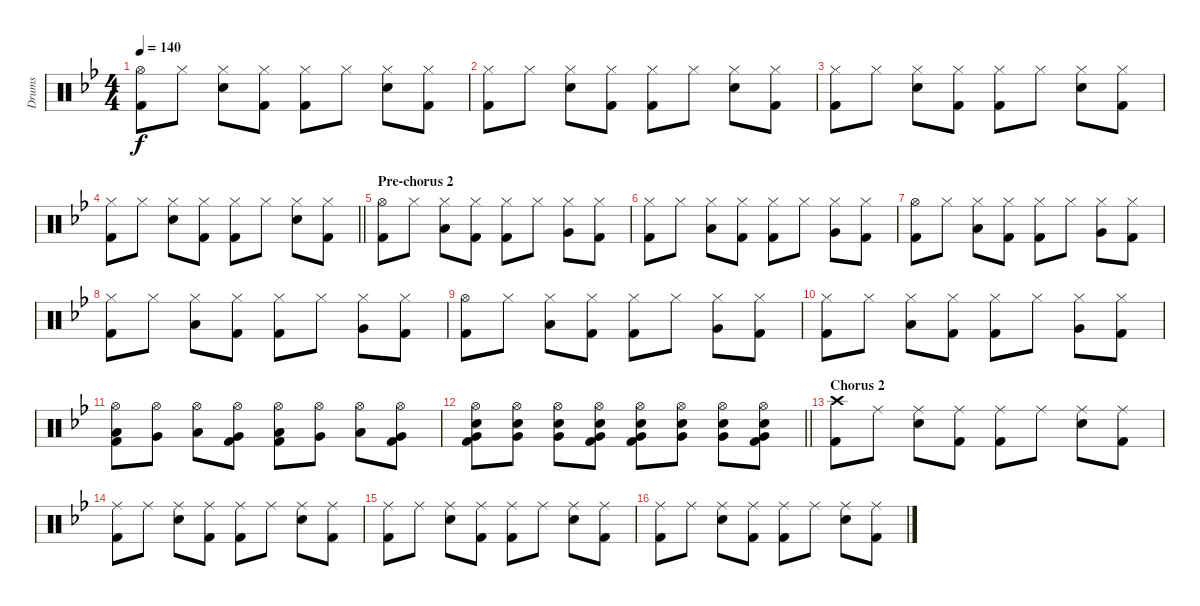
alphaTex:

\track ("Drums" "Drums") {instrument percussion}
\staff {score}
\articulation defaults
\ts (4 4)
\tempo 140
\clef neutral
\ks bb
("Hi-Hat (open)" "Kick (hit) 2").8{dy f} "Hi-Hat (closed)".8 ("Hi-Hat (closed)" "Snare (hit) 2").8 ("Hi-Hat (closed)" "Kick (hit) 2").8 ("Hi-Hat (closed)" "Kick (hit) 2").8 "Hi-Hat (closed)".8 ("Hi-Hat (closed)" "Snare (hit) 2").8 ("Hi-Hat (closed)" "Kick (hit) 2").8 |
("Hi-Hat (closed)" "Kick (hit) 2").8 "Hi-Hat (closed)".8 ("Hi-Hat (closed)" "Snare (hit) 2").8 ("Hi-Hat (closed)" "Kick (hit) 2").8 ("Hi-Hat (closed)" "Kick (hit) 2").8 "Hi-Hat (closed)".8 ("Hi-Hat (closed)" "Snare (hit) 2").8 ("Hi-Hat (closed)" "Kick (hit) 2").8 |
("Hi-Hat (closed)" "Kick (hit) 2").8 "Hi-Hat (closed)".8 ("Hi-Hat (closed)" "Snare (hit) 2").8 ("Hi-Hat (closed)" "Kick (hit) 2").8 ("Hi-Hat (closed)" "Kick (hit) 2").8 "Hi-Hat (closed)".8 ("Hi-Hat (closed)" "Snare (hit) 2").8 ("Hi-Hat (closed)" "Kick (hit) 2").8 |
\barLineRight lightlight
("Hi-Hat (closed)" "Kick (hit) 2").8 "Hi-Hat (closed)".8 ("Hi-Hat (closed)" "Snare (hit) 2").8 ("Hi-Hat (closed)" "Kick (hit) 2").8 ("Hi-Hat (closed)" "Kick (hit) 2").8 "Hi-Hat (closed)".8 ("Hi-Hat (closed)" "Snare (hit) 2").8 ("Hi-Hat (closed)" "Kick (hit) 2").8 |
\section ("" "Pre-chorus 2")
("Hi-Hat (open)" "Kick (hit) 2").8 "Hi-Hat (closed)".8 ("Hi-Hat (closed)" "Low Floor Tom (hit)").8 ("Hi-Hat (closed)" "Kick (hit) 2").8 ("Hi-Hat (closed)" "Kick (hit) 2").8 "Hi-Hat (closed)".8 ("Hi-Hat (closed)" "Very Low Tom (hit)").8 ("Hi-Hat (closed)" "Kick (hit) 2").8 |
("Hi-Hat (closed)" "Kick (hit) 2").8 "Hi-Hat (closed)".8 ("Hi-Hat (closed)" "Low Floor Tom (hit)").8 ("Hi-Hat (closed)" "Kick (hit) 2").8 ("Hi-Hat (closed)" "Kick (hit) 2").8 "Hi-Hat (closed)".8 ("Hi-Hat (closed)" "Very Low Tom (hit)").8 ("Hi-Hat (closed)" "Kick (hit) 2").8 |
("Hi-Hat (open)" "Kick (hit) 2").8 "Hi-Hat (closed)".8 ("Hi-Hat (closed)" "Low Floor Tom (hit)").8 ("Hi-Hat (closed)" "Kick (hit) 2").8 ("Hi-Hat (closed)" "Kick (hit) 2").8 "Hi-Hat (closed)".8 ("Hi-Hat (closed)" "Very Low Tom (hit)").8 ("Hi-Hat (closed)" "Kick (hit) 2").8 |
("Hi-Hat (closed)" "Kick (hit) 2").8 "Hi-Hat (closed)".8 ("Hi-Hat (closed)" "Low Floor Tom (hit)").8 ("Hi-Hat (closed)" "Kick (hit) 2").8 ("Hi-Hat (closed)" "Kick (hit) 2").8 "Hi-Hat (closed)".8 ("Hi-Hat (closed)" "Very Low Tom (hit)").8 ("Hi-Hat (closed)" "Kick (hit) 2").8 |
("Hi-Hat (open)" "Kick (hit) 2").8 "Hi-Hat (closed)".8 ("Hi-Hat (closed)" "Low Floor Tom (hit)").8 ("Hi-Hat (closed)" "Kick (hit) 2").8 ("Hi-Hat (closed)" "Kick (hit) 2").8 "Hi-Hat (closed)".8 ("Hi-Hat (closed)" "Very Low Tom (hit)").8 ("Hi-Hat (closed)" "Kick (hit) 2").8 |
("Hi-Hat (closed)" "Kick (hit) 2").8 "Hi-Hat (closed)".8 ("Hi-Hat (closed)" "Low Floor Tom (hit)").8 ("Hi-Hat (closed)" "Kick (hit) 2").8 ("Hi-Hat (closed)" "Kick (hit) 2").8 "Hi-Hat (closed)".8 ("Hi-Hat (closed)" "Very Low Tom (hit)").8 ("Hi-Hat (closed)" "Kick (hit) 2").8 |
("Hi-Hat (open)" "Low Tom (hit)" "Kick (hit) 2").8 ("Hi-Hat (open)" "Very Low Tom (hit)").8 ("Hi-Hat (open)" "Low Tom (hit)").8 ("Hi-Hat (open)" "Very Low Tom (hit)" "Kick (hit) 2").8 ("Hi-Hat (open)" "Low Tom (hit)" "Kick (hit) 2").8 ("Hi-Hat (open)" "Very Low Tom (hit)").8 ("Hi-Hat (open)" "Low Tom (hit)").8 ("Hi-Hat (open)" "Very Low Tom (hit)" "Kick (hit) 2").8 |
\barLineRight lightlight
("Hi-Hat (open)" "Snare (hit) 2" "Very Low Tom (hit)" "Kick (hit) 2").8 ("Hi-Hat (open)" "Snare (hit) 2" "Very Low Tom (hit)").8 ("Hi-Hat (open)" "Snare (hit) 2" "Very Low Tom (hit)").8 ("Hi-Hat (open)" "Snare (hit) 2" "Very Low Tom (hit)" "Kick (hit) 2").8 ("Hi-Hat (open)" "Snare (hit) 2" "Very Low Tom (hit)" "Kick (hit) 2").8 ("Hi-Hat (open)" "Snare (hit) 2" "Very Low Tom (hit)").8 ("Hi-Hat (open)" "Snare (hit) 2" "Very Low Tom (hit)").8 ("Hi-Hat (open)" "Snare (hit) 2" "Very Low Tom (hit)" "Kick (hit) 2").8 |
\section ("" "Chorus 2")
("Crash high (hit)" "Kick (hit) 2").8 "Ride (middle)".8 ("Ride (middle)" "Snare (hit) 2").8 ("Ride (middle)" "Kick (hit) 2").8 ("Ride (middle)" "Kick (hit) 2").8 "Ride (middle)".8 ("Ride (middle)" "Snare (hit) 2").8 ("Ride (middle)" "Kick (hit) 2").8 |
("Ride (middle)" "Kick (hit) 2").8 "Ride (middle)".8 ("Ride (middle)" "Snare (hit) 2").8 ("Ride (middle)" "Kick (hit) 2").8 ("Ride (middle)" "Kick (hit) 2").8 "Ride (middle)".8 ("Ride (middle)" "Snare (hit) 2").8 ("Ride (middle)" "Kick (hit) 2").8 |
("Ride (middle)" "Kick (hit) 2").8 "Ride (middle)".8 ("Ride (middle)" "Snare (hit) 2").8 ("Ride (middle)" "Kick (hit) 2").8 ("Ride (middle)" "Kick (hit) 2").8 "Ride (middle)".8 ("Ride (middle)" "Snare (hit) 2").8 ("Ride (middle)" "Kick (hit) 2").8 |
("Ride (middle)" "Kick (hit) 2").8 "Ride (middle)".8 ("Ride (middle)" "Snare (hit) 2").8 ("Ride (middle)" "Kick (hit) 2").8 ("Ride (middle)" "Kick (hit) 2").8 "Ride (middle)".8 ("Ride (middle)" "Snare (hit) 2").8 ("Ride (middle)" "Kick (hit) 2").8
